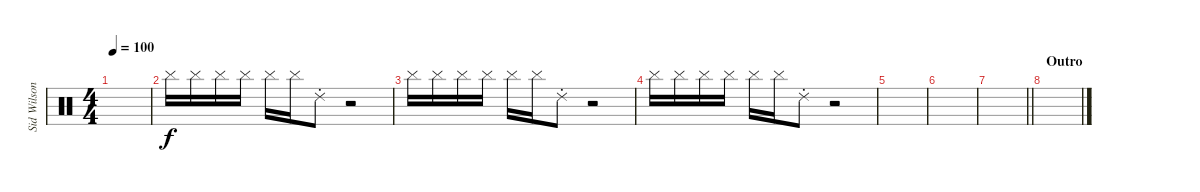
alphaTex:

\track ("Sid Wilson" "Sid Wilson") {instrument percussion}
\staff {score}
\articulation defaults
\ts (4 4)
\tempo 100
\clef neutral
\ks c
|
"Cymbal (hit)".16 "Cymbal (hit)".16 "Cymbal (hit)".16 "Cymbal (hit)".16 "Cymbal (hit)".16 "Cymbal (hit)".16 "Ride (choke) 2".8 r.2 |
"Cymbal (hit)".16 "Cymbal (hit)".16 "Cymbal (hit)".16 "Cymbal (hit)".16 "Cymbal (hit)".16 "Cymbal (hit)".16 "Ride (choke) 2".8 r.2 |
"Cymbal (hit)".16 "Cymbal (hit)".16 "Cymbal (hit)".16 "Cymbal (hit)".16 "Cymbal (hit)".16 "Cymbal (hit)".16 "Ride (choke) 2".8 r.2 |
|
|
\barLineRight lightlight
|
\section ("" "Outro")
